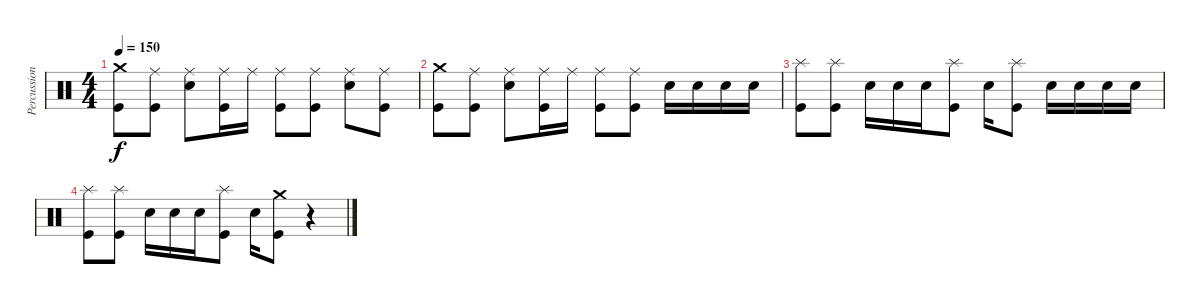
\track ("Percussion" "Percussion") {instrument percussion}
\staff {score}
\articulation defaults
\ts (4 4)
\tempo 150
\clef neutral
\ks c
("Crash medium (hit)" "Kick (hit)").8{dy f} ("Ride (middle)" "Kick (hit)").8 ("Ride (middle)" "Snare (hit) 2").8 ("Ride (middle)" "Kick (hit)").16 "Ride (middle)".16 ("Ride (middle)" "Kick (hit)").8 ("Ride (middle)" "Kick (hit)").8 ("Ride (middle)" "Snare (hit) 2").8 ("Ride (middle)" "Kick (hit)").8 |
("Crash medium (hit)" "Kick (hit)").8 ("Ride (middle)" "Kick (hit)").8 ("Ride (middle)" "Snare (hit) 2").8 ("Ride (middle)" "Kick (hit)").16 "Ride (middle)".16 ("Ride (middle)" "Kick (hit)").8 ("Ride (middle)" "Kick (hit)").8 "Snare (hit) 2".16 "Snare (hit) 2".16 "Snare (hit) 2".16 "Snare (hit) 2".16 |
("Splash (hit)" "Kick (hit)").8 ("Splash (hit)" "Kick (hit)").8 "Snare (hit) 2".16 "Snare (hit) 2".16 "Snare (hit) 2".16 ("Splash (hit)" "Kick (hit)").8 "Snare (hit) 2".16 ("Splash (hit)" "Kick (hit)").8 "Snare (hit) 2".16 "Snare (hit) 2".16 "Snare (hit) 2".16 "Snare (hit) 2".16 |
("Splash (hit)" "Kick (hit)").8 ("Splash (hit)" "Kick (hit)").8 "Snare (hit) 2".16 "Snare (hit) 2".16 "Snare (hit) 2".16 ("Splash (hit)" "Kick (hit)").8 "Snare (hit) 2".16 ("Crash medium (hit)" "Kick (hit)").8 r.4
